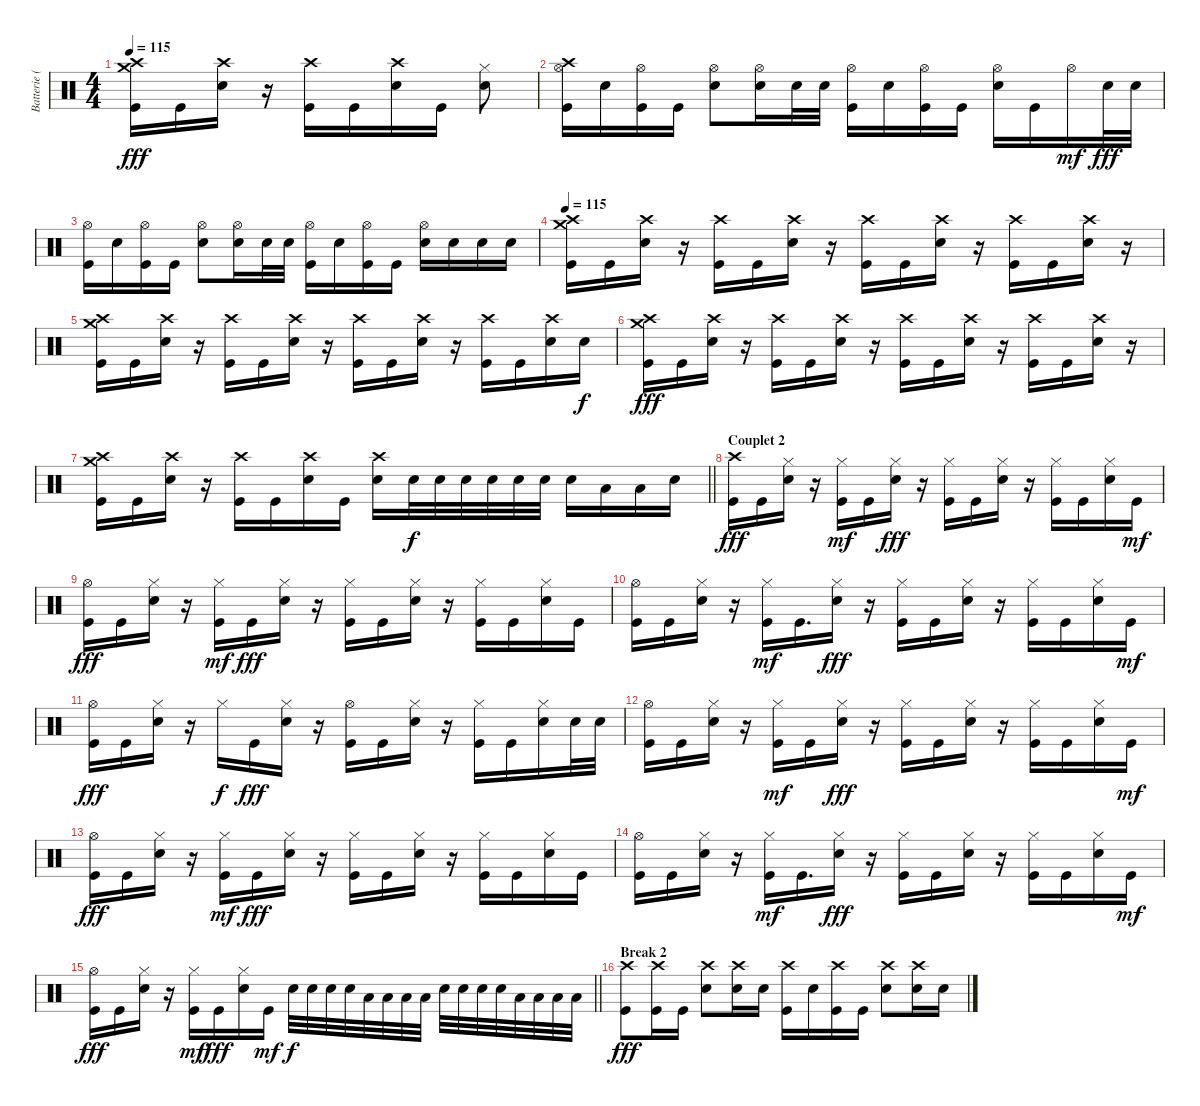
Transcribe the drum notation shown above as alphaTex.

\track ("Batterie (Steve)" "Batterie (") {instrument percussion}
\staff {score}
\articulation defaults
\ts (4 4)
\tempo 115
\clef neutral
\ks c
("Crash medium (hit)" "Crash high (hit)" "Kick (hit)").16{dy fff} "Kick (hit)".16 ("Crash high (hit)" "Electric Snare (hit)").16 r.16 ("Crash high (hit)" "Kick (hit)").16 "Kick (hit)".16 ("Crash high (hit)" "Electric Snare (hit)").16 "Kick (hit)".16 ("Hi-Hat (closed)" "Electric Snare (hit)").8 |
("Crash high (hit)" "Hi-Hat (open)" "Kick (hit)").16 "Electric Snare (hit)".16 ("Hi-Hat (open)" "Kick (hit)").16 "Kick (hit)".16 ("Hi-Hat (open)" "Electric Snare (hit)").8 ("Hi-Hat (open)" "Electric Snare (hit)").16 "Electric Snare (hit)".32 "Electric Snare (hit)".32 ("Hi-Hat (open)" "Kick (hit)").16 "Electric Snare (hit)".16 ("Hi-Hat (open)" "Kick (hit)").16 "Kick (hit)".16 ("Hi-Hat (open)" "Electric Snare (hit)").16 "Kick (hit)".16 "Hi-Hat (open)".16{dy mf} "Electric Snare (hit)".32{dy fff} "Electric Snare (hit)".32 |
("Hi-Hat (open)" "Kick (hit)").16 "Electric Snare (hit)".16 ("Hi-Hat (open)" "Kick (hit)").16 "Kick (hit)".16 ("Hi-Hat (open)" "Electric Snare (hit)").8 ("Hi-Hat (open)" "Electric Snare (hit)").16 "Electric Snare (hit)".32 "Electric Snare (hit)".32 ("Hi-Hat (open)" "Kick (hit)").16 "Electric Snare (hit)".16 ("Hi-Hat (open)" "Kick (hit)").16 "Kick (hit)".16 ("Hi-Hat (open)" "Electric Snare (hit)").16 "Electric Snare (hit)".16 "Electric Snare (hit)".16 "Electric Snare (hit)".16 |
\tempo 115
("Crash medium (hit)" "Crash high (hit)" "Kick (hit)").16 "Kick (hit)".16 ("Crash high (hit)" "Electric Snare (hit)").16 r.16 ("Crash high (hit)" "Kick (hit)").16 "Kick (hit)".16 ("Crash high (hit)" "Electric Snare (hit)").16 r.16 ("Crash high (hit)" "Kick (hit)").16 "Kick (hit)".16 ("Crash high (hit)" "Electric Snare (hit)").16 r.16 ("Crash high (hit)" "Kick (hit)").16 "Kick (hit)".16 ("Crash high (hit)" "Electric Snare (hit)").16 r.16 |
("Crash medium (hit)" "Crash high (hit)" "Kick (hit)").16 "Kick (hit)".16 ("Crash high (hit)" "Electric Snare (hit)").16 r.16 ("Crash high (hit)" "Kick (hit)").16 "Kick (hit)".16 ("Crash high (hit)" "Electric Snare (hit)").16 r.16 ("Crash high (hit)" "Kick (hit)").16 "Kick (hit)".16 ("Crash high (hit)" "Electric Snare (hit)").16 r.16 ("Crash high (hit)" "Kick (hit)").16 "Kick (hit)".16 ("Crash high (hit)" "Electric Snare (hit)").16 "Electric Snare (hit)".16{dy f} |
("Crash medium (hit)" "Crash high (hit)" "Kick (hit)").16{dy fff} "Kick (hit)".16 ("Crash high (hit)" "Electric Snare (hit)").16 r.16 ("Crash high (hit)" "Kick (hit)").16 "Kick (hit)".16 ("Crash high (hit)" "Electric Snare (hit)").16 r.16 ("Crash high (hit)" "Kick (hit)").16 "Kick (hit)".16 ("Crash high (hit)" "Electric Snare (hit)").16 r.16 ("Crash high (hit)" "Kick (hit)").16 "Kick (hit)".16 ("Crash high (hit)" "Electric Snare (hit)").16 r.16 |
\barLineRight lightlight
("Crash medium (hit)" "Crash high (hit)" "Kick (hit)").16 "Kick (hit)".16 ("Crash high (hit)" "Electric Snare (hit)").16 r.16 ("Crash high (hit)" "Kick (hit)").16 "Kick (hit)".16 ("Crash high (hit)" "Electric Snare (hit)").16 "Kick (hit)".16 ("Crash high (hit)" "Electric Snare (hit)").16 "Electric Snare (hit)".32{dy f} "Electric Snare (hit)".32 "Electric Snare (hit)".32 "Electric Snare (hit)".32 "Electric Snare (hit)".32 "Electric Snare (hit)".32 "Electric Snare (hit)".16 "Low Tom (hit)".16 "Low Floor Tom (hit)".16 "Electric Snare (hit)".16 |
\section ("" "Couplet 2")
("Crash high (hit)" "Kick (hit)").16{dy fff} "Kick (hit)".16 ("Hi-Hat (closed)" "Electric Snare (hit)").16 r.16 ("Hi-Hat (closed)" "Kick (hit)").16{dy mf} "Kick (hit)".16 ("Hi-Hat (closed)" "Electric Snare (hit)").16{dy fff} r.16 ("Hi-Hat (closed)" "Kick (hit)").16 "Kick (hit)".16 ("Hi-Hat (closed)" "Electric Snare (hit)").16 r.16 ("Hi-Hat (closed)" "Kick (hit)").16 "Kick (hit)".16 ("Hi-Hat (closed)" "Electric Snare (hit)").16 "Kick (hit)".16{dy mf} |
("Hi-Hat (open)" "Kick (hit)").16{dy fff} "Kick (hit)".16 ("Hi-Hat (closed)" "Electric Snare (hit)").16 r.16 ("Hi-Hat (closed)" "Kick (hit)").16{dy mf} "Kick (hit)".16{dy fff} ("Hi-Hat (closed)" "Electric Snare (hit)").16 r.16 ("Hi-Hat (closed)" "Kick (hit)").16 "Kick (hit)".16 ("Hi-Hat (closed)" "Electric Snare (hit)").16 r.16 ("Hi-Hat (closed)" "Kick (hit)").16 "Kick (hit)".16 ("Hi-Hat (closed)" "Electric Snare (hit)").16 "Kick (hit)".16 |
("Hi-Hat (open)" "Kick (hit)").16 "Kick (hit)".16 ("Hi-Hat (closed)" "Electric Snare (hit)").16 r.16 ("Hi-Hat (closed)" "Kick (hit)").16{dy mf} "Kick (hit)".16{d} ("Hi-Hat (closed)" "Electric Snare (hit)").16{dy fff} r.16 ("Hi-Hat (closed)" "Kick (hit)").16 "Kick (hit)".16 ("Hi-Hat (closed)" "Electric Snare (hit)").16 r.16 ("Hi-Hat (closed)" "Kick (hit)").16 "Kick (hit)".16 ("Hi-Hat (closed)" "Electric Snare (hit)").16 "Kick (hit)".16{dy mf} |
("Hi-Hat (open)" "Kick (hit)").16{dy fff} "Kick (hit)".16 ("Hi-Hat (closed)" "Electric Snare (hit)").16 r.16 "Hi-Hat (closed)".16{dy f} "Kick (hit)".16{dy fff} ("Hi-Hat (closed)" "Electric Snare (hit)").16 r.16 ("Hi-Hat (open)" "Kick (hit)").16 "Kick (hit)".16 ("Hi-Hat (closed)" "Electric Snare (hit)").16 r.16 ("Hi-Hat (closed)" "Kick (hit)").16 "Kick (hit)".16 ("Hi-Hat (closed)" "Electric Snare (hit)").16 "Electric Snare (hit)".32 "Electric Snare (hit)".32 |
("Hi-Hat (open)" "Kick (hit)").16 "Kick (hit)".16 ("Hi-Hat (closed)" "Electric Snare (hit)").16 r.16 ("Hi-Hat (closed)" "Kick (hit)").16{dy mf} "Kick (hit)".16 ("Hi-Hat (closed)" "Electric Snare (hit)").16{dy fff} r.16 ("Hi-Hat (closed)" "Kick (hit)").16 "Kick (hit)".16 ("Hi-Hat (closed)" "Electric Snare (hit)").16 r.16 ("Hi-Hat (closed)" "Kick (hit)").16 "Kick (hit)".16 ("Hi-Hat (closed)" "Electric Snare (hit)").16 "Kick (hit)".16{dy mf} |
("Hi-Hat (open)" "Kick (hit)").16{dy fff} "Kick (hit)".16 ("Hi-Hat (closed)" "Electric Snare (hit)").16 r.16 ("Hi-Hat (closed)" "Kick (hit)").16{dy mf} "Kick (hit)".16{dy fff} ("Hi-Hat (closed)" "Electric Snare (hit)").16 r.16 ("Hi-Hat (closed)" "Kick (hit)").16 "Kick (hit)".16 ("Hi-Hat (closed)" "Electric Snare (hit)").16 r.16 ("Hi-Hat (closed)" "Kick (hit)").16 "Kick (hit)".16 ("Hi-Hat (closed)" "Electric Snare (hit)").16 "Kick (hit)".16 |
("Hi-Hat (open)" "Kick (hit)").16 "Kick (hit)".16 ("Hi-Hat (closed)" "Electric Snare (hit)").16 r.16 ("Hi-Hat (closed)" "Kick (hit)").16{dy mf} "Kick (hit)".16{d} ("Hi-Hat (closed)" "Electric Snare (hit)").16{dy fff} r.16 ("Hi-Hat (closed)" "Kick (hit)").16 "Kick (hit)".16 ("Hi-Hat (closed)" "Electric Snare (hit)").16 r.16 ("Hi-Hat (closed)" "Kick (hit)").16 "Kick (hit)".16 ("Hi-Hat (closed)" "Electric Snare (hit)").16 "Kick (hit)".16{dy mf} |
\barLineRight lightlight
("Hi-Hat (open)" "Kick (hit)").16{dy fff} "Kick (hit)".16 ("Hi-Hat (closed)" "Electric Snare (hit)").16 r.16 ("Hi-Hat (closed)" "Kick (hit)").16{dy mf} "Kick (hit)".16{dy fff} ("Hi-Hat (closed)" "Electric Snare (hit)").16 "Kick (hit)".16{dy mf} "Electric Snare (hit)".32{dy f} "Electric Snare (hit)".32 "Electric Snare (hit)".32 "Electric Snare (hit)".32 "Low Tom (hit)".32 "Low Tom (hit)".32 "Low Tom (hit)".32 "Low Tom (hit)".32 "Electric Snare (hit)".32 "Electric Snare (hit)".32 "Electric Snare (hit)".32 "Electric Snare (hit)".32 "Low Tom (hit)".32 "Low Tom (hit)".32 "Low Tom (hit)".32 "Low Tom (hit)".32 |
\section ("" "Break 2")
("Crash high (hit)" "Kick (hit)").8{dy fff} ("Crash high (hit)" "Kick (hit)").16 "Kick (hit)".16 ("Crash high (hit)" "Electric Snare (hit)").8 ("Crash high (hit)" "Electric Snare (hit)").16 "Electric Snare (hit)".16 ("Crash high (hit)" "Kick (hit)").16 "Electric Snare (hit)".16 ("Crash high (hit)" "Kick (hit)").16 "Kick (hit)".16 ("Crash high (hit)" "Electric Snare (hit)").8 ("Crash high (hit)" "Electric Snare (hit)").16 "Electric Snare (hit)".16
